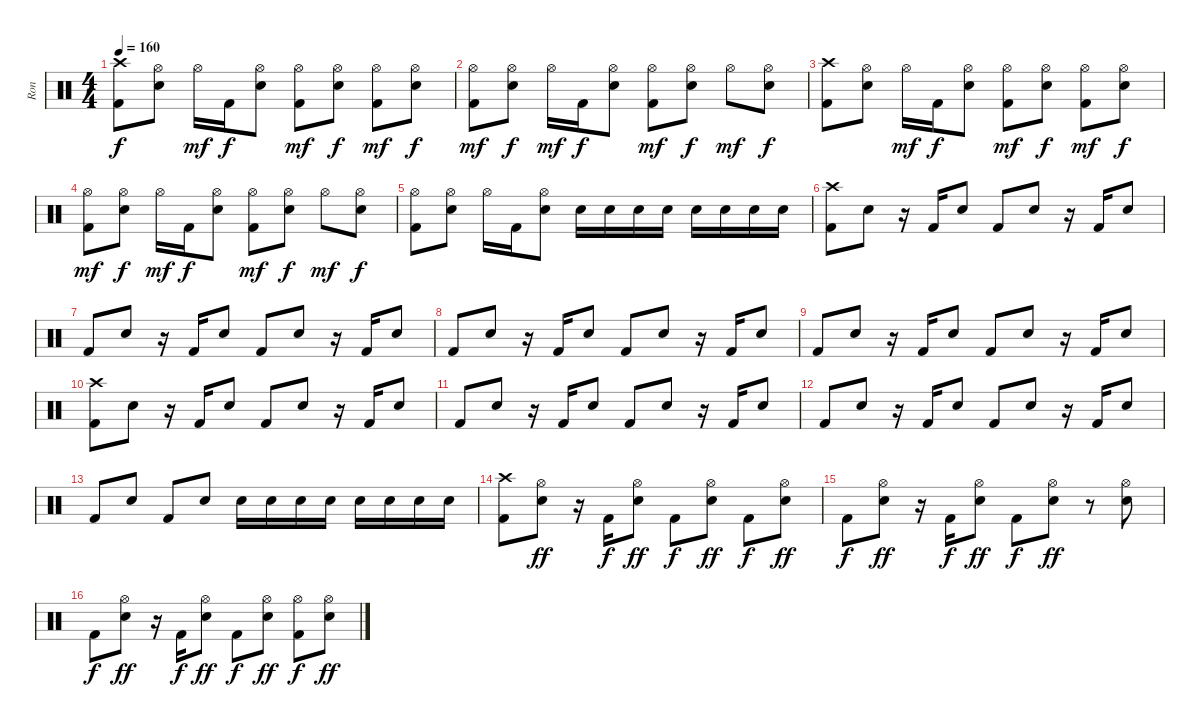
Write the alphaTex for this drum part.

\track ("Ron" "Ron") {instrument percussion}
\staff {score}
\articulation defaults
\ts (4 4)
\tempo 160
\clef neutral
\ks c
("Crash high (hit)" "Kick (hit) 2").8{dy f} ("Hi-Hat (open)" "Electric Snare (hit)").8 "Hi-Hat (open)".16{dy mf} "Kick (hit) 2".16{dy f} ("Hi-Hat (open)" "Electric Snare (hit)").8 ("Hi-Hat (open)" "Kick (hit) 2").8{dy mf} ("Hi-Hat (open)" "Electric Snare (hit)").8{dy f} ("Hi-Hat (open)" "Kick (hit) 2").8{dy mf} ("Hi-Hat (open)" "Electric Snare (hit)").8{dy f} |
("Hi-Hat (open)" "Kick (hit) 2").8{dy mf} ("Hi-Hat (open)" "Electric Snare (hit)").8{dy f} "Hi-Hat (open)".16{dy mf} "Kick (hit) 2".16{dy f} ("Hi-Hat (open)" "Electric Snare (hit)").8 ("Hi-Hat (open)" "Kick (hit) 2").8{dy mf} ("Hi-Hat (open)" "Electric Snare (hit)").8{dy f} "Hi-Hat (open)".8{dy mf} ("Hi-Hat (open)" "Electric Snare (hit)").8{dy f} |
("Crash high (hit)" "Kick (hit) 2").8 ("Hi-Hat (open)" "Electric Snare (hit)").8 "Hi-Hat (open)".16{dy mf} "Kick (hit) 2".16{dy f} ("Hi-Hat (open)" "Electric Snare (hit)").8 ("Hi-Hat (open)" "Kick (hit) 2").8{dy mf} ("Hi-Hat (open)" "Electric Snare (hit)").8{dy f} ("Hi-Hat (open)" "Kick (hit) 2").8{dy mf} ("Hi-Hat (open)" "Electric Snare (hit)").8{dy f} |
("Hi-Hat (open)" "Kick (hit) 2").8{dy mf} ("Hi-Hat (open)" "Electric Snare (hit)").8{dy f} "Hi-Hat (open)".16{dy mf} "Kick (hit) 2".16{dy f} ("Hi-Hat (open)" "Electric Snare (hit)").8 ("Hi-Hat (open)" "Kick (hit) 2").8{dy mf} ("Hi-Hat (open)" "Electric Snare (hit)").8{dy f} "Hi-Hat (open)".8{dy mf} ("Hi-Hat (open)" "Electric Snare (hit)").8{dy f} |
("Hi-Hat (open)" "Kick (hit) 2").8 ("Hi-Hat (open)" "Electric Snare (hit)").8 "Hi-Hat (open)".16 "Kick (hit) 2".16 ("Hi-Hat (open)" "Electric Snare (hit)").8 "Electric Snare (hit)".16 "Electric Snare (hit)".16 "Electric Snare (hit)".16 "Electric Snare (hit)".16 "Electric Snare (hit)".16 "Electric Snare (hit)".16 "Electric Snare (hit)".16 "Electric Snare (hit)".16 |
("Crash high (hit)" "Kick (hit) 2").8 "Electric Snare (hit)".8 r.16 "Kick (hit) 2".16 "Electric Snare (hit)".8 "Kick (hit) 2".8 "Electric Snare (hit)".8 r.16 "Kick (hit) 2".16 "Electric Snare (hit)".8 |
"Kick (hit) 2".8 "Electric Snare (hit)".8 r.16 "Kick (hit) 2".16 "Electric Snare (hit)".8 "Kick (hit) 2".8 "Electric Snare (hit)".8 r.16 "Kick (hit) 2".16 "Electric Snare (hit)".8 |
"Kick (hit) 2".8 "Electric Snare (hit)".8 r.16 "Kick (hit) 2".16 "Electric Snare (hit)".8 "Kick (hit) 2".8 "Electric Snare (hit)".8 r.16 "Kick (hit) 2".16 "Electric Snare (hit)".8 |
"Kick (hit) 2".8 "Electric Snare (hit)".8 r.16 "Kick (hit) 2".16 "Electric Snare (hit)".8 "Kick (hit) 2".8 "Electric Snare (hit)".8 r.16 "Kick (hit) 2".16 "Electric Snare (hit)".8 |
("Crash high (hit)" "Kick (hit) 2").8 "Electric Snare (hit)".8 r.16 "Kick (hit) 2".16 "Electric Snare (hit)".8 "Kick (hit) 2".8 "Electric Snare (hit)".8 r.16 "Kick (hit) 2".16 "Electric Snare (hit)".8 |
"Kick (hit) 2".8 "Electric Snare (hit)".8 r.16 "Kick (hit) 2".16 "Electric Snare (hit)".8 "Kick (hit) 2".8 "Electric Snare (hit)".8 r.16 "Kick (hit) 2".16 "Electric Snare (hit)".8 |
"Kick (hit) 2".8 "Electric Snare (hit)".8 r.16 "Kick (hit) 2".16 "Electric Snare (hit)".8 "Kick (hit) 2".8 "Electric Snare (hit)".8 r.16 "Kick (hit) 2".16 "Electric Snare (hit)".8 |
"Kick (hit) 2".8 "Electric Snare (hit)".8 "Kick (hit) 2".8 "Electric Snare (hit)".8 "Electric Snare (hit)".16 "Electric Snare (hit)".16 "Electric Snare (hit)".16 "Electric Snare (hit)".16 "Electric Snare (hit)".16 "Electric Snare (hit)".16 "Electric Snare (hit)".16 "Electric Snare (hit)".16 |
("Crash high (hit)" "Kick (hit) 2").8 ("Hi-Hat (open)" "Electric Snare (hit)").8{dy ff} r.16 "Kick (hit) 2".16{dy f} ("Hi-Hat (open)" "Electric Snare (hit)").8{dy ff} "Kick (hit) 2".8{dy f} ("Hi-Hat (open)" "Electric Snare (hit)").8{dy ff} "Kick (hit) 2".8{dy f} ("Hi-Hat (open)" "Electric Snare (hit)").8{dy ff} |
"Kick (hit) 2".8{dy f} ("Hi-Hat (open)" "Electric Snare (hit)").8{dy ff} r.16 "Kick (hit) 2".16{dy f} ("Hi-Hat (open)" "Electric Snare (hit)").8{dy ff} "Kick (hit) 2".8{dy f} ("Hi-Hat (open)" "Electric Snare (hit)").8{dy ff} r.8 ("Hi-Hat (open)" "Electric Snare (hit)").8 |
"Kick (hit) 2".8{dy f} ("Hi-Hat (open)" "Electric Snare (hit)").8{dy ff} r.16 "Kick (hit) 2".16{dy f} ("Hi-Hat (open)" "Electric Snare (hit)").8{dy ff} "Kick (hit) 2".8{dy f} ("Hi-Hat (open)" "Electric Snare (hit)").8{dy ff} ("Hi-Hat (open)" "Kick (hit) 2").8{dy f} ("Hi-Hat (open)" "Electric Snare (hit)").8{dy ff}
